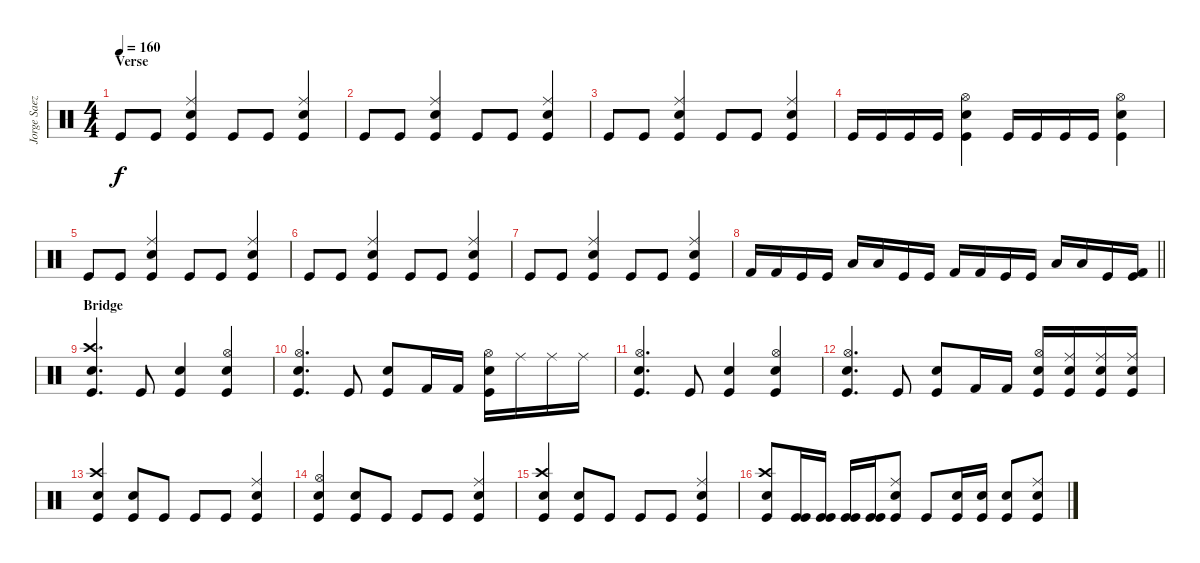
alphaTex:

\track ("Jorge Saez" "Jorge Saez") {instrument percussion}
\staff {score}
\articulation defaults
\ts (4 4)
\section ("" "Verse")
\tempo 160
\clef neutral
\ks c "Kick (hit)".8{dy f} "Kick (hit)".8
("Ride (middle)" "Snare (hit) 2" "Kick (hit)").4 "Kick (hit)".8 "Kick (hit)".8 ("Ride (middle)" "Snare (hit) 2" "Kick (hit)").4 |
"Kick (hit)".8 "Kick (hit)".8 ("Ride (middle)" "Snare (hit) 2" "Kick (hit)").4 "Kick (hit)".8 "Kick (hit)".8 ("Ride (middle)" "Snare (hit) 2" "Kick (hit)").4 |
"Kick (hit)".8 "Kick (hit)".8 ("Ride (middle)" "Snare (hit) 2" "Kick (hit)").4 "Kick (hit)".8 "Kick (hit)".8 ("Ride (middle)" "Snare (hit) 2" "Kick (hit)").4 |
"Kick (hit)".16 "Kick (hit)".16 "Kick (hit)".16 "Kick (hit)".16 ("Hi-Hat (open)" "Snare (hit) 2" "Kick (hit)").4 "Kick (hit)".16 "Kick (hit)".16 "Kick (hit)".16 "Kick (hit)".16 ("Hi-Hat (open)" "Snare (hit) 2" "Kick (hit)").4 |
"Kick (hit)".8 "Kick (hit)".8 ("Ride (middle)" "Snare (hit) 2" "Kick (hit)").4 "Kick (hit)".8 "Kick (hit)".8 ("Ride (middle)" "Snare (hit) 2" "Kick (hit)").4 |
"Kick (hit)".8 "Kick (hit)".8 ("Ride (middle)" "Snare (hit) 2" "Kick (hit)").4 "Kick (hit)".8 "Kick (hit)".8 ("Ride (middle)" "Snare (hit) 2" "Kick (hit)").4 |
"Kick (hit)".8 "Kick (hit)".8 ("Ride (middle)" "Snare (hit) 2" "Kick (hit)").4 "Kick (hit)".8 "Kick (hit)".8 ("Ride (middle)" "Snare (hit) 2" "Kick (hit)").4 |
\barLineRight lightlight "Kick (hit) 2".16 "Kick (hit) 2".16 "Kick (hit)".16 "Kick (hit)".16 "Low Floor Tom (hit)".16 "Low Floor Tom (hit)".16 "Kick (hit)".16 "Kick (hit)".16 "Kick (hit) 2".16 "Kick (hit) 2".16 "Kick (hit)".16 "Kick (hit)".16 "Low Floor Tom (hit)".16 "Low Floor Tom (hit)".16 "Kick (hit)".16
("Kick (hit) 2" "Kick (hit)").16 |
\section ("" "Bridge")
("Crash high (hit)" "Electric Snare (hit)" "Kick (hit)").4{d} "Kick (hit)".8 ("Snare (hit) 2" "Kick (hit)").4 ("Hi-Hat (open)" "Electric Snare (hit)" "Kick (hit)").4 |
("Hi-Hat (open)" "Electric Snare (hit)" "Kick (hit)").4{d} "Kick (hit)".8 ("Snare (hit) 2" "Kick (hit)").8 "Kick (hit) 2".16 "Kick (hit) 2".16 ("Hi-Hat (open)" "Electric Snare (hit)" "Kick (hit)").16 "Ride (middle)".16 "Ride (middle)".16 "Ride (middle)".16 |
("Hi-Hat (open)" "Electric Snare (hit)" "Kick (hit)").4{d} "Kick (hit)".8 ("Snare (hit) 2" "Kick (hit)").4 ("Hi-Hat (open)" "Electric Snare (hit)" "Kick (hit)").4 |
("Hi-Hat (open)" "Electric Snare (hit)" "Kick (hit)").4{d} "Kick (hit)".8 ("Snare (hit) 2" "Kick (hit)").8 "Kick (hit) 2".16 "Kick (hit) 2".16 ("Hi-Hat (open)" "Electric Snare (hit)" "Kick (hit)").16 ("Ride (middle)" "Electric Snare (hit)" "Kick (hit)").16 ("Ride (middle)" "Electric Snare (hit)" "Kick (hit)").16 ("Ride (middle)" "Electric Snare (hit)" "Kick (hit)").16 |
("Crash high (hit)" "Electric Snare (hit)" "Kick (hit)").4 ("Electric Snare (hit)" "Kick (hit)").8 "Kick (hit)".8 "Kick (hit)".8 "Kick (hit)".8 ("Ride (middle)" "Electric Snare (hit)" "Kick (hit)").4 |
("Hi-Hat (open)" "Electric Snare (hit)" "Kick (hit)").4 ("Electric Snare (hit)" "Kick (hit)").8 "Kick (hit)".8 "Kick (hit)".8 "Kick (hit)".8 ("Ride (middle)" "Electric Snare (hit)" "Kick (hit)").4 |
("Crash high (hit)" "Electric Snare (hit)" "Kick (hit)").4 ("Electric Snare (hit)" "Kick (hit)").8 "Kick (hit)".8 "Kick (hit)".8 "Kick (hit)".8 ("Ride (middle)" "Electric Snare (hit)" "Kick (hit)").4 |
("Crash high (hit)" "Electric Snare (hit)" "Kick (hit)").8 ("Kick (hit)" "Kick (hit)").16 ("Kick (hit)" "Kick (hit)").16 ("Kick (hit)" "Kick (hit)").16 ("Kick (hit)" "Kick (hit)").16 ("Ride (middle)" "Electric Snare (hit)" "Kick (hit)").8 "Kick (hit)".8 ("Electric Snare (hit)" "Kick (hit)").16 ("Electric Snare (hit)" "Kick (hit)").16 ("Electric Snare (hit)" "Kick (hit)").8 ("Ride (middle)" "Electric Snare (hit)" "Kick (hit)").8
